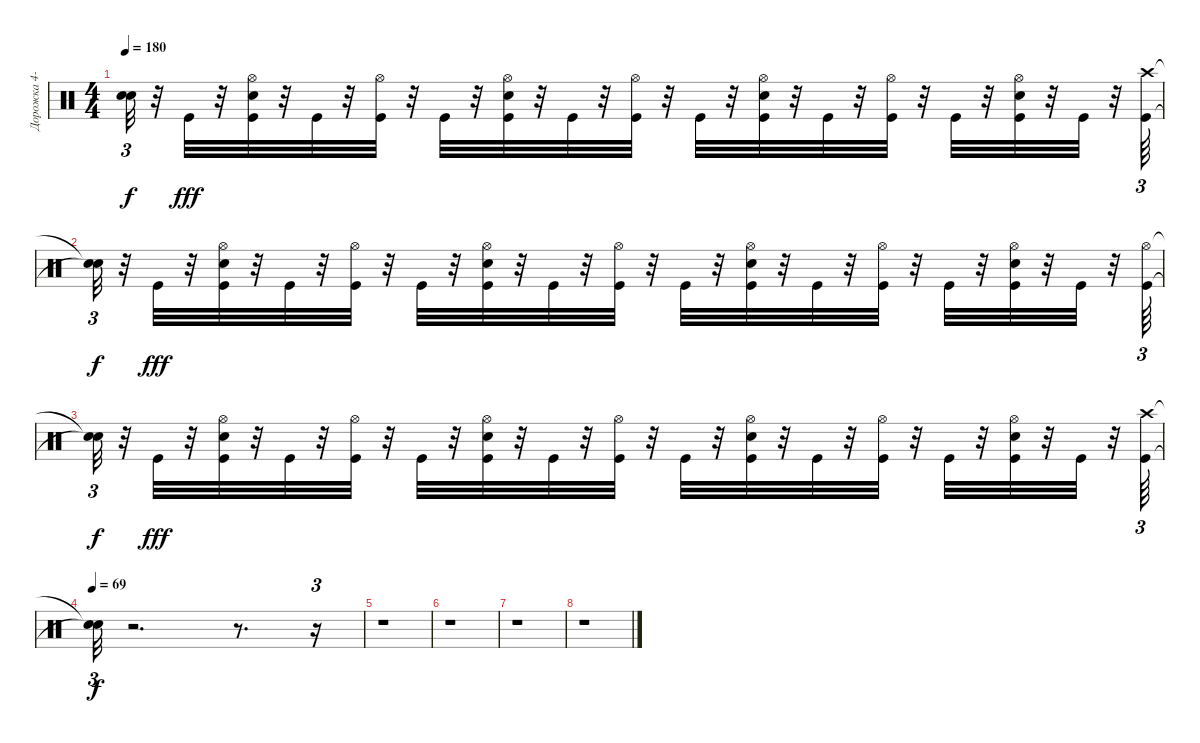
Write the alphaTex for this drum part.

\track ("Дорожка 4-10-11" "Дорожка 4-") {instrument percussion}
\staff {score}
\articulation defaults
\ts (4 4)
\tempo 180
\clef neutral
\ks c
("Snare (hit)"{t} "Snare (hit)"{t}).32{tu (3 2) dy f} r.32 "Kick (hit)".32{dy fff} r.32 ("Hi-Hat (open)" "Snare (hit) 2" "Kick (hit)").32 r.32 "Kick (hit)".32 r.32 ("Hi-Hat (open)" "Kick (hit)").32 r.32 "Kick (hit)".32 r.32 ("Hi-Hat (open)" "Snare (hit) 2" "Kick (hit)").32 r.32 "Kick (hit)".32 r.32 ("Hi-Hat (open)" "Kick (hit)").32 r.32 "Kick (hit)".32 r.32 ("Hi-Hat (open)" "Snare (hit) 2" "Kick (hit)").32 r.32 "Kick (hit)".32 r.32 ("Hi-Hat (open)" "Kick (hit)").32 r.32 "Kick (hit)".32 r.32 ("Hi-Hat (open)" "Snare (hit) 2" "Kick (hit)").32 r.32 "Kick (hit)".32 r.32 ("Crash high (hit)" "Kick (hit)").64{tu (3 2)} |
("Snare (hit)"{t} "Snare (hit)"{t}).32{tu (3 2) dy f} r.32 "Kick (hit)".32{dy fff} r.32 ("Hi-Hat (open)" "Snare (hit) 2" "Kick (hit)").32 r.32 "Kick (hit)".32 r.32 ("Hi-Hat (open)" "Kick (hit)").32 r.32 "Kick (hit)".32 r.32 ("Hi-Hat (open)" "Snare (hit) 2" "Kick (hit)").32 r.32 "Kick (hit)".32 r.32 ("Hi-Hat (open)" "Kick (hit)").32 r.32 "Kick (hit)".32 r.32 ("Hi-Hat (open)" "Snare (hit) 2" "Kick (hit)").32 r.32 "Kick (hit)".32 r.32 ("Hi-Hat (open)" "Kick (hit)").32 r.32 "Kick (hit)".32 r.32 ("Hi-Hat (open)" "Snare (hit) 2" "Kick (hit)").32 r.32 "Kick (hit)".32 r.32 ("Hi-Hat (open)" "Kick (hit)").64{tu (3 2)} |
("Snare (hit)"{t} "Snare (hit)"{t}).32{tu (3 2) dy f} r.32 "Kick (hit)".32{dy fff} r.32 ("Hi-Hat (open)" "Snare (hit) 2" "Kick (hit)").32 r.32 "Kick (hit)".32 r.32 ("Hi-Hat (open)" "Kick (hit)").32 r.32 "Kick (hit)".32 r.32 ("Hi-Hat (open)" "Snare (hit) 2" "Kick (hit)").32 r.32 "Kick (hit)".32 r.32 ("Hi-Hat (open)" "Kick (hit)").32 r.32 "Kick (hit)".32 r.32 ("Hi-Hat (open)" "Snare (hit) 2" "Kick (hit)").32 r.32 "Kick (hit)".32 r.32 ("Hi-Hat (open)" "Kick (hit)").32 r.32 "Kick (hit)".32 r.32 ("Hi-Hat (open)" "Snare (hit) 2" "Kick (hit)").32 r.32 "Kick (hit)".32 r.32 ("Crash high (hit)" "Kick (hit)").64{tu (3 2)} |
\tempo 69
("Snare (hit)"{t} "Snare (hit)"{t}).32{tu (3 2) dy f} r.2{d} r.8{d} r.16{tu (3 2)} |
r.1 |
r.1 |
r.1 |
r.1
